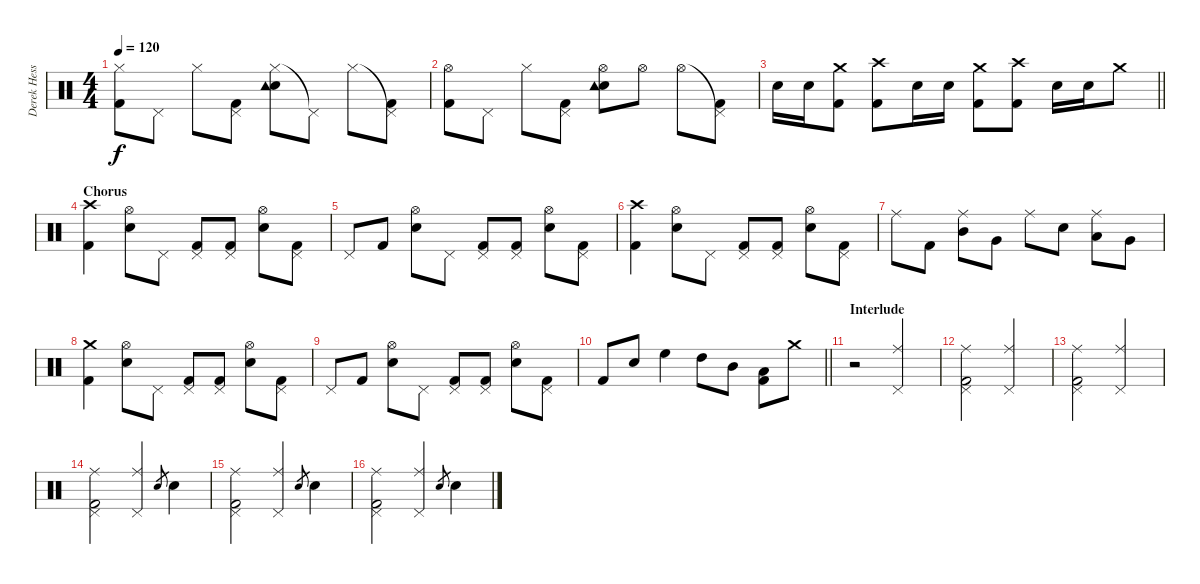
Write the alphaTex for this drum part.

\track ("Derek Hess (Drums and Percussion)" "Derek Hess") {instrument percussion}
\staff {score}
\articulation defaults
\ts (4 4)
\tempo 120
\clef neutral
\ks c
("Hi-Hat (closed)" "Kick (hit) 2").8{dy f} "Pedal Hi-Hat (hit)".8 "Hi-Hat (closed)".8 ("Pedal Hi-Hat (hit)" "Kick (hit) 2").8 ("Hi-Hat (closed)" "Snare (hit) 2" "Tambourine (hit)").8 "Pedal Hi-Hat (hit)"{t}.8 "Hi-Hat (closed)".8 ("Pedal Hi-Hat (hit)"{t} "Kick (hit) 2").8 |
("Hi-Hat (open)" "Kick (hit) 2").8 "Pedal Hi-Hat (hit)".8 "Hi-Hat (closed)".8 ("Pedal Hi-Hat (hit)" "Kick (hit) 2").8 ("Hi-Hat (open)" "Snare (hit) 2" "Tambourine (hit)").8 "Hi-Hat (open)".8 "Hi-Hat (open)".8 ("Pedal Hi-Hat (hit)"{t} "Kick (hit) 2").8 |
\barLineRight lightlight "Snare (hit) 2".16 "Snare (hit) 2".16
("Crash medium (hit)" "Kick (hit) 2").8 ("Crash high (hit)" "Kick (hit) 2").8 "Snare (hit) 2".16 "Snare (hit) 2".16 ("Crash medium (hit)" "Kick (hit) 2").8 ("Crash high (hit)" "Kick (hit) 2").8 "Snare (hit) 2".16 "Snare (hit) 2".16 "Crash medium (hit)".8 |
\section ("" "Chorus")
("Crash high (hit)" "Kick (hit) 2").4 ("Snare (hit) 2" "Hi-Hat (open)").8 "Pedal Hi-Hat (hit)".8 ("Pedal Hi-Hat (hit)" "Kick (hit) 2").8 ("Pedal Hi-Hat (hit)" "Kick (hit) 2").8 ("Snare (hit) 2" "Hi-Hat (open)").8 ("Pedal Hi-Hat (hit)" "Kick (hit) 2").8 |
"Pedal Hi-Hat (hit)".8 "Kick (hit) 2".8 ("Snare (hit) 2" "Hi-Hat (open)").8 "Pedal Hi-Hat (hit)".8 ("Pedal Hi-Hat (hit)" "Kick (hit) 2").8 ("Pedal Hi-Hat (hit)" "Kick (hit) 2").8 ("Snare (hit) 2" "Hi-Hat (open)").8 ("Pedal Hi-Hat (hit)" "Kick (hit) 2").8 |
("Crash high (hit)" "Kick (hit) 2").4 ("Snare (hit) 2" "Hi-Hat (open)").8 "Pedal Hi-Hat (hit)".8 ("Pedal Hi-Hat (hit)" "Kick (hit) 2").8 ("Pedal Hi-Hat (hit)" "Kick (hit) 2").8 ("Snare (hit) 2" "Hi-Hat (open)").8 ("Pedal Hi-Hat (hit)" "Kick (hit) 2").8 |
"Ride (middle)".8 "Kick (hit) 2".8 ("Ride (middle)" "Mid Tom (hit)").8 "Very Low Tom (hit)".8 "Ride (middle)".8 "Snare (hit) 2".8 ("Ride (middle)" "Low Tom (hit)").8 "Very Low Tom (hit)".8 |
("Crash medium (hit)" "Kick (hit) 2").4 ("Snare (hit) 2" "Hi-Hat (open)").8 "Pedal Hi-Hat (hit)".8 ("Pedal Hi-Hat (hit)" "Kick (hit) 2").8 ("Pedal Hi-Hat (hit)" "Kick (hit) 2").8 ("Snare (hit) 2" "Hi-Hat (open)").8 ("Pedal Hi-Hat (hit)" "Kick (hit) 2").8 |
"Pedal Hi-Hat (hit)".8 "Kick (hit) 2".8 ("Snare (hit) 2" "Hi-Hat (open)").8 "Pedal Hi-Hat (hit)".8 ("Pedal Hi-Hat (hit)" "Kick (hit) 2").8 ("Pedal Hi-Hat (hit)" "Kick (hit) 2").8 ("Snare (hit) 2" "Hi-Hat (open)").8 ("Pedal Hi-Hat (hit)" "Kick (hit) 2").8 |
\barLineRight lightlight "Kick (hit) 2".8 "Snare (hit) 2".8 "High Floor Tom (hit)".4 "High Tom (hit)".8 "Mid Tom (hit)".8
("Low Tom (hit)" "Kick (hit) 2").8 "Crash medium (hit)".8 |
\section ("" "Interlude")
r.2 ("Ride (middle)" "Pedal Hi-Hat (hit)").2 |
("Ride (middle)" "Pedal Hi-Hat (hit)" "Kick (hit) 2").2 ("Ride (middle)" "Pedal Hi-Hat (hit)").2 |
("Ride (middle)" "Pedal Hi-Hat (hit)" "Kick (hit) 2").2 ("Ride (middle)" "Pedal Hi-Hat (hit)").2 |
("Ride (middle)" "Pedal Hi-Hat (hit)" "Kick (hit) 2").2 ("Ride (middle)" "Pedal Hi-Hat (hit)").4 "Snare (hit) 2".8{gr} "Snare (hit) 2".4 |
("Ride (middle)" "Pedal Hi-Hat (hit)" "Kick (hit) 2").2 ("Ride (middle)" "Pedal Hi-Hat (hit)").4 "Snare (hit) 2".8{gr} "Snare (hit) 2".4 |
("Ride (middle)" "Pedal Hi-Hat (hit)" "Kick (hit) 2").2 ("Ride (middle)" "Pedal Hi-Hat (hit)").4 "Snare (hit) 2".8{gr} "Snare (hit) 2".4
